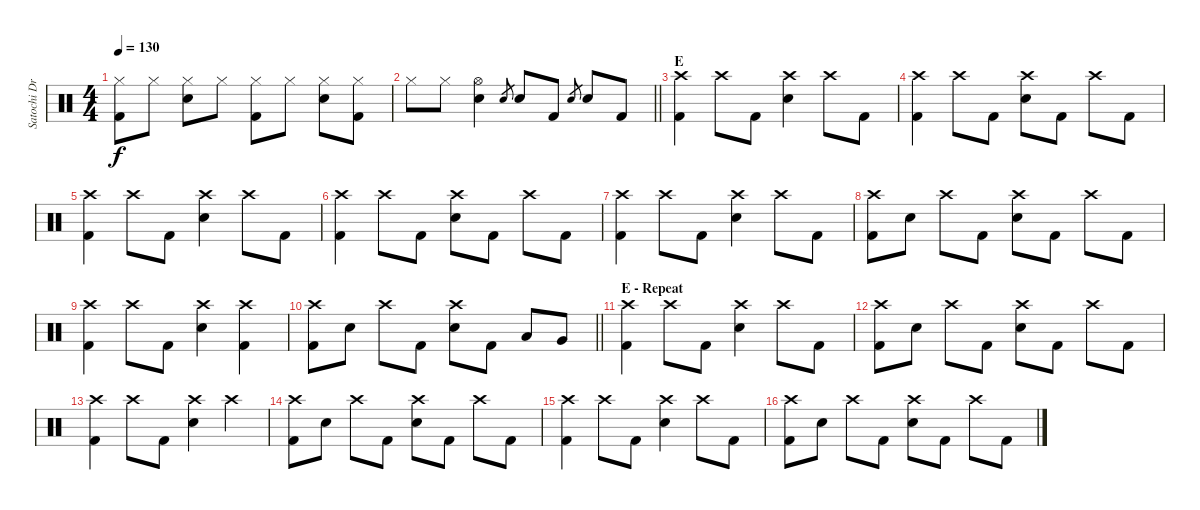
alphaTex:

\track ("Satochi Drums" "Satochi Dr") {instrument percussion}
\staff {score}
\articulation defaults
\ts (4 4)
\tempo 130
\clef neutral
\ks c
("Hi-Hat (closed)" "Kick (hit) 2").8{dy f} "Hi-Hat (closed)".8 ("Hi-Hat (closed)" "Snare (hit) 2").8 "Hi-Hat (closed)".8 ("Hi-Hat (closed)" "Kick (hit) 2").8 "Hi-Hat (closed)".8 ("Hi-Hat (closed)" "Snare (hit) 2").8 ("Hi-Hat (closed)" "Kick (hit) 2").8 |
\barLineRight lightlight "Hi-Hat (closed)".8 "Hi-Hat (closed)".8
("Hi-Hat (open)" "Snare (hit) 2").4 "Snare (hit) 2".8{gr} "Snare (hit) 2".8 "Kick (hit) 2".8 "Snare (hit) 2".8{gr} "Snare (hit) 2".8 "Kick (hit) 2".8 |
\section ("" "E")
("Crash high (hit)" "Kick (hit) 2").4 "Crash high (hit)".8 "Kick (hit) 2".8 ("Crash high (hit)" "Snare (hit) 2").4 "Crash high (hit)".8 "Kick (hit) 2".8 |
("Crash high (hit)" "Kick (hit) 2").4 "Crash high (hit)".8 "Kick (hit) 2".8 ("Crash high (hit)" "Snare (hit) 2").8 "Kick (hit) 2".8 "Crash high (hit)".8 "Kick (hit) 2".8 |
("Crash high (hit)" "Kick (hit) 2").4 "Crash high (hit)".8 "Kick (hit) 2".8 ("Crash high (hit)" "Snare (hit) 2").4 "Crash high (hit)".8 "Kick (hit) 2".8 |
("Crash high (hit)" "Kick (hit) 2").4 "Crash high (hit)".8 "Kick (hit) 2".8 ("Crash high (hit)" "Snare (hit) 2").8 "Kick (hit) 2".8 "Crash high (hit)".8 "Kick (hit) 2".8 |
("Crash high (hit)" "Kick (hit) 2").4 "Crash high (hit)".8 "Kick (hit) 2".8 ("Crash high (hit)" "Snare (hit) 2").4 "Crash high (hit)".8 "Kick (hit) 2".8 |
("Crash high (hit)" "Kick (hit) 2").8 "Snare (hit) 2".8 "Crash high (hit)".8 "Kick (hit) 2".8 ("Crash high (hit)" "Snare (hit) 2").8 "Kick (hit) 2".8 "Crash high (hit)".8 "Kick (hit) 2".8 |
("Crash high (hit)" "Kick (hit) 2").4 "Crash high (hit)".8 "Kick (hit) 2".8 ("Crash high (hit)" "Snare (hit) 2").4 ("Crash high (hit)" "Kick (hit) 2").4 |
\barLineRight lightlight
("Crash high (hit)" "Kick (hit) 2").8 "Snare (hit) 2".8 "Crash high (hit)".8 "Kick (hit) 2".8 ("Crash high (hit)" "Snare (hit) 2").8 "Kick (hit) 2".8 "Low Tom (hit)".8 "Very Low Tom (hit)".8 |
\section ("" "E - Repeat")
("Crash high (hit)" "Kick (hit) 2").4 "Crash high (hit)".8 "Kick (hit) 2".8 ("Crash high (hit)" "Snare (hit) 2").4 "Crash high (hit)".8 "Kick (hit) 2".8 |
("Crash high (hit)" "Kick (hit) 2").8 "Snare (hit) 2".8 "Crash high (hit)".8 "Kick (hit) 2".8 ("Crash high (hit)" "Snare (hit) 2").8 "Kick (hit) 2".8 "Crash high (hit)".8 "Kick (hit) 2".8 |
("Crash high (hit)" "Kick (hit) 2").4 "Crash high (hit)".8 "Kick (hit) 2".8 ("Crash high (hit)" "Snare (hit) 2").4 "Crash high (hit)".4 |
("Crash high (hit)" "Kick (hit) 2").8 "Snare (hit) 2".8 "Crash high (hit)".8 "Kick (hit) 2".8 ("Crash high (hit)" "Snare (hit) 2").8 "Kick (hit) 2".8 "Crash high (hit)".8 "Kick (hit) 2".8 |
("Crash high (hit)" "Kick (hit) 2").4 "Crash high (hit)".8 "Kick (hit) 2".8 ("Crash high (hit)" "Snare (hit) 2").4 "Crash high (hit)".8 "Kick (hit) 2".8 |
("Crash high (hit)" "Kick (hit) 2").8 "Snare (hit) 2".8 "Crash high (hit)".8 "Kick (hit) 2".8 ("Crash high (hit)" "Snare (hit) 2").8 "Kick (hit) 2".8 "Crash high (hit)".8 "Kick (hit) 2".8
